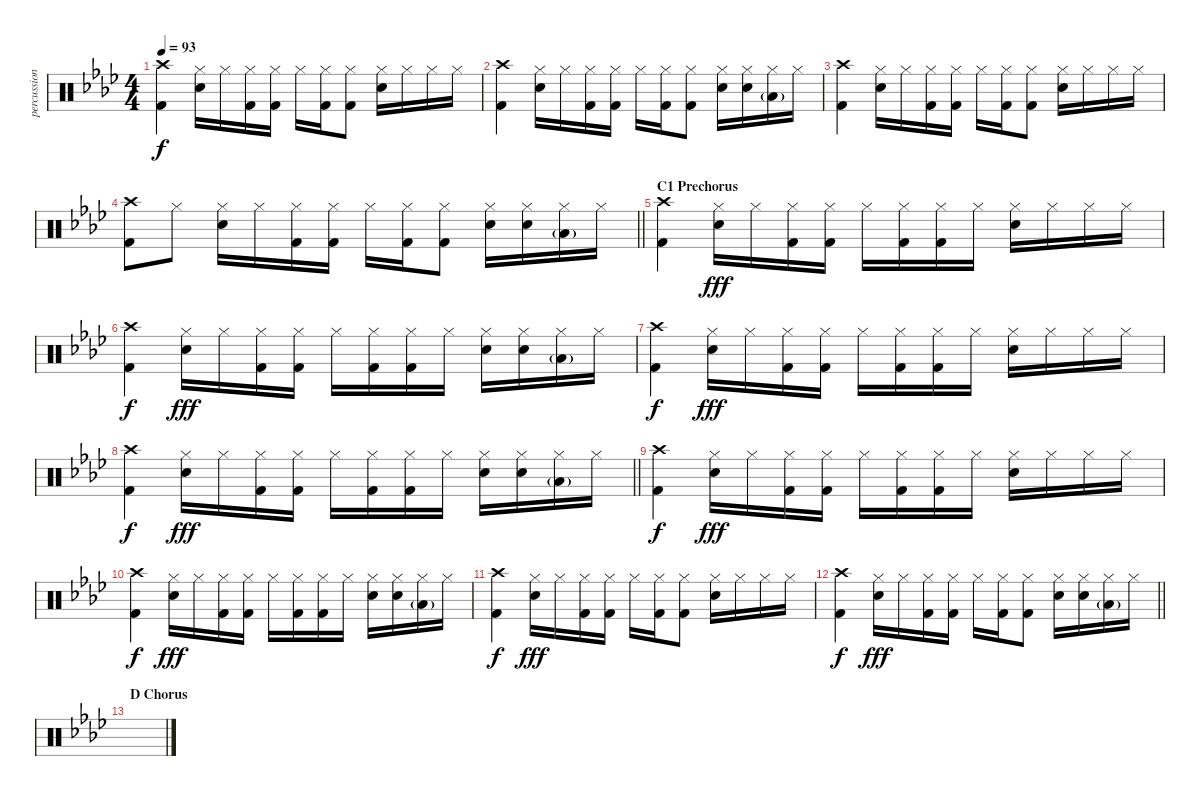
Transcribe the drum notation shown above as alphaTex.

\track ("percussion" "percussion") {instrument percussion}
\staff {score}
\articulation defaults
\ts (4 4)
\tempo 93
\clef neutral
\ks fminor
("Crash high (hit)" "Kick (hit) 2").4{dy f} ("Snare (hit) 2" "Hi-Hat (closed)").16 "Hi-Hat (closed)".16 ("Hi-Hat (closed)" "Kick (hit) 2").16 ("Hi-Hat (closed)" "Kick (hit) 2").16 "Hi-Hat (closed)".16 ("Hi-Hat (closed)" "Kick (hit) 2").16 ("Hi-Hat (closed)" "Kick (hit) 2").8 ("Snare (hit) 2" "Hi-Hat (closed)").16 "Hi-Hat (closed)".16 "Hi-Hat (closed)".16 "Hi-Hat (closed)".16 |
("Crash high (hit)" "Kick (hit) 2").4 ("Snare (hit) 2" "Hi-Hat (closed)").16 "Hi-Hat (closed)".16 ("Hi-Hat (closed)" "Kick (hit) 2").16 ("Hi-Hat (closed)" "Kick (hit) 2").16 "Hi-Hat (closed)".16 ("Hi-Hat (closed)" "Kick (hit) 2").16 ("Hi-Hat (closed)" "Kick (hit) 2").8 ("Snare (hit) 2" "Hi-Hat (closed)").16 ("Snare (hit) 2" "Hi-Hat (closed)").16 ("Low Floor Tom (hit)"{g} "Hi-Hat (closed)").16 "Hi-Hat (closed)".16 |
("Crash high (hit)" "Kick (hit) 2").4 ("Snare (hit) 2" "Hi-Hat (closed)").16 "Hi-Hat (closed)".16 ("Hi-Hat (closed)" "Kick (hit) 2").16 ("Hi-Hat (closed)" "Kick (hit) 2").16 "Hi-Hat (closed)".16 ("Hi-Hat (closed)" "Kick (hit) 2").16 ("Hi-Hat (closed)" "Kick (hit) 2").8 ("Snare (hit) 2" "Hi-Hat (closed)").16 "Hi-Hat (closed)".16 "Hi-Hat (closed)".16 "Hi-Hat (closed)".16 |
\barLineRight lightlight
("Crash high (hit)" "Kick (hit) 2").8 "Hi-Hat (closed)".8 ("Snare (hit) 2" "Hi-Hat (closed)").16 "Hi-Hat (closed)".16 ("Hi-Hat (closed)" "Kick (hit) 2").16 ("Hi-Hat (closed)" "Kick (hit) 2").16 "Hi-Hat (closed)".16 ("Hi-Hat (closed)" "Kick (hit) 2").16 ("Hi-Hat (closed)" "Kick (hit) 2").8 ("Snare (hit) 2" "Hi-Hat (closed)").16 ("Snare (hit) 2" "Hi-Hat (closed)").16 ("Low Floor Tom (hit)"{g} "Hi-Hat (closed)").16 "Hi-Hat (closed)".16 |
\section ("" "C1 Prechorus")
("Crash high (hit)" "Kick (hit) 2").4 ("Snare (hit) 2" "Hi-Hat (closed)").16{dy fff} "Hi-Hat (closed)".16 ("Hi-Hat (closed)" "Kick (hit) 2").16 ("Hi-Hat (closed)" "Kick (hit) 2").16 "Hi-Hat (closed)".16 ("Hi-Hat (closed)" "Kick (hit) 2").16 ("Hi-Hat (closed)" "Kick (hit) 2").16 "Hi-Hat (closed)".16 ("Snare (hit) 2" "Hi-Hat (closed)").16 "Hi-Hat (closed)".16 "Hi-Hat (closed)".16 "Hi-Hat (closed)".16 |
("Crash high (hit)" "Kick (hit) 2").4{dy f} ("Snare (hit) 2" "Hi-Hat (closed)").16{dy fff} "Hi-Hat (closed)".16 ("Hi-Hat (closed)" "Kick (hit) 2").16 ("Hi-Hat (closed)" "Kick (hit) 2").16 "Hi-Hat (closed)".16 ("Hi-Hat (closed)" "Kick (hit) 2").16 ("Hi-Hat (closed)" "Kick (hit) 2").16 "Hi-Hat (closed)".16 ("Snare (hit) 2" "Hi-Hat (closed)").16 ("Snare (hit) 2" "Hi-Hat (closed)").16 ("Low Floor Tom (hit)"{g} "Hi-Hat (closed)").16 "Hi-Hat (closed)".16 |
("Crash high (hit)" "Kick (hit) 2").4{dy f} ("Snare (hit) 2" "Hi-Hat (closed)").16{dy fff} "Hi-Hat (closed)".16 ("Hi-Hat (closed)" "Kick (hit) 2").16 ("Hi-Hat (closed)" "Kick (hit) 2").16 "Hi-Hat (closed)".16 ("Hi-Hat (closed)" "Kick (hit) 2").16 ("Hi-Hat (closed)" "Kick (hit) 2").16 "Hi-Hat (closed)".16 ("Snare (hit) 2" "Hi-Hat (closed)").16 "Hi-Hat (closed)".16 "Hi-Hat (closed)".16 "Hi-Hat (closed)".16 |
\barLineRight lightlight
("Crash high (hit)" "Kick (hit) 2").4{dy f} ("Snare (hit) 2" "Hi-Hat (closed)").16{dy fff} "Hi-Hat (closed)".16 ("Hi-Hat (closed)" "Kick (hit) 2").16 ("Hi-Hat (closed)" "Kick (hit) 2").16 "Hi-Hat (closed)".16 ("Hi-Hat (closed)" "Kick (hit) 2").16 ("Hi-Hat (closed)" "Kick (hit) 2").16 "Hi-Hat (closed)".16 ("Snare (hit) 2" "Hi-Hat (closed)").16 ("Snare (hit) 2" "Hi-Hat (closed)").16 ("Low Floor Tom (hit)"{g} "Hi-Hat (closed)").16 "Hi-Hat (closed)".16 |
("Crash high (hit)" "Kick (hit) 2").4{dy f} ("Snare (hit) 2" "Hi-Hat (closed)").16{dy fff} "Hi-Hat (closed)".16 ("Hi-Hat (closed)" "Kick (hit) 2").16 ("Hi-Hat (closed)" "Kick (hit) 2").16 "Hi-Hat (closed)".16 ("Hi-Hat (closed)" "Kick (hit) 2").16 ("Hi-Hat (closed)" "Kick (hit) 2").16 "Hi-Hat (closed)".16 ("Snare (hit) 2" "Hi-Hat (closed)").16 "Hi-Hat (closed)".16 "Hi-Hat (closed)".16 "Hi-Hat (closed)".16 |
("Crash high (hit)" "Kick (hit) 2").4{dy f} ("Snare (hit) 2" "Hi-Hat (closed)").16{dy fff} "Hi-Hat (closed)".16 ("Hi-Hat (closed)" "Kick (hit) 2").16 ("Hi-Hat (closed)" "Kick (hit) 2").16 "Hi-Hat (closed)".16 ("Hi-Hat (closed)" "Kick (hit) 2").16 ("Hi-Hat (closed)" "Kick (hit) 2").16 "Hi-Hat (closed)".16 ("Snare (hit) 2" "Hi-Hat (closed)").16 ("Snare (hit) 2" "Hi-Hat (closed)").16 ("Low Floor Tom (hit)"{g} "Hi-Hat (closed)").16 "Hi-Hat (closed)".16 |
("Crash high (hit)" "Kick (hit) 2").4{dy f} ("Snare (hit) 2" "Hi-Hat (closed)").16{dy fff} "Hi-Hat (closed)".16 ("Hi-Hat (closed)" "Kick (hit) 2").16 ("Hi-Hat (closed)" "Kick (hit) 2").16 "Hi-Hat (closed)".16 ("Hi-Hat (closed)" "Kick (hit) 2").16 ("Hi-Hat (closed)" "Kick (hit) 2").8 ("Snare (hit) 2" "Hi-Hat (closed)").16 "Hi-Hat (closed)".16 "Hi-Hat (closed)".16 "Hi-Hat (closed)".16 |
\barLineRight lightlight
("Crash high (hit)" "Kick (hit) 2").4{dy f} ("Snare (hit) 2" "Hi-Hat (closed)").16{dy fff} "Hi-Hat (closed)".16 ("Hi-Hat (closed)" "Kick (hit) 2").16 ("Hi-Hat (closed)" "Kick (hit) 2").16 "Hi-Hat (closed)".16 ("Hi-Hat (closed)" "Kick (hit) 2").16 ("Hi-Hat (closed)" "Kick (hit) 2").8 ("Snare (hit) 2" "Hi-Hat (closed)").16 ("Snare (hit) 2" "Hi-Hat (closed)").16 ("Low Floor Tom (hit)"{g} "Hi-Hat (closed)").16 "Hi-Hat (closed)".16 |
\section ("" "D Chorus")
